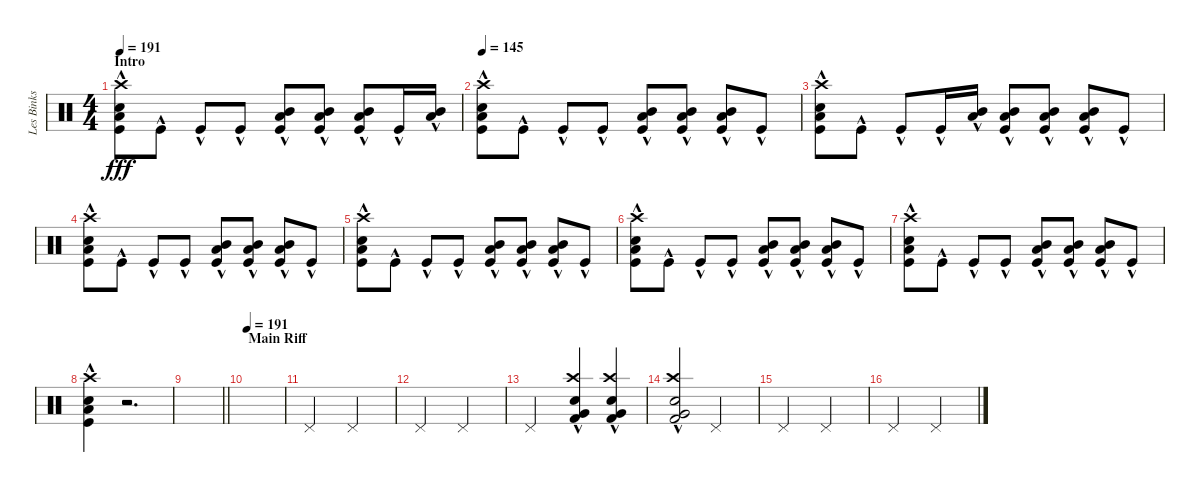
\track ("Les Binks" "Les Binks") {instrument percussion}
\staff {score}
\articulation defaults
\ts (4 4)
\section ("" "Intro")
\tempo 191
\tempo 171
\tempo 191
\clef neutral
\ks c
("Snare (hit) 2"{hac} "Low Tom (hit)"{hac} "Kick (hit)"{hac} "Crash high (hit)"{hac}).8{dy fff} "Kick (hit)"{hac}.8 "Kick (hit)"{hac}.8 "Kick (hit)"{hac}.8 ("Mid Tom (hit)"{hac} "Low Tom (hit)"{hac} "Kick (hit)"{hac}).8 ("Mid Tom (hit)"{hac} "Low Tom (hit)"{hac} "Kick (hit)"{hac}).8 ("Mid Tom (hit)"{hac} "Low Tom (hit)"{hac} "Kick (hit)"{hac}).8 "Kick (hit)"{hac}.16 ("Mid Tom (hit)"{hac} "Low Tom (hit)"{hac}).16 |
\tempo 145
("Snare (hit) 2"{hac} "Low Tom (hit)"{hac} "Kick (hit)"{hac} "Crash high (hit)"{hac}).8 "Kick (hit)"{hac}.8 "Kick (hit)"{hac}.8 "Kick (hit)"{hac}.8 ("Mid Tom (hit)"{hac} "Low Tom (hit)"{hac} "Kick (hit)"{hac}).8 ("Mid Tom (hit)"{hac} "Low Tom (hit)"{hac} "Kick (hit)"{hac}).8 ("Mid Tom (hit)"{hac} "Low Tom (hit)"{hac} "Kick (hit)"{hac}).8 "Kick (hit)"{hac}.8 |
("Snare (hit) 2"{hac} "Low Tom (hit)"{hac} "Kick (hit)"{hac} "Crash high (hit)"{hac}).8 "Kick (hit)"{hac}.8 "Kick (hit)"{hac}.8 "Kick (hit)"{hac}.16 ("Mid Tom (hit)"{hac} "Low Tom (hit)"{hac}).16 ("Mid Tom (hit)"{hac} "Low Tom (hit)"{hac} "Kick (hit)"{hac}).8 ("Mid Tom (hit)"{hac} "Low Tom (hit)"{hac} "Kick (hit)"{hac}).8 ("Mid Tom (hit)"{hac} "Low Tom (hit)"{hac} "Kick (hit)"{hac}).8 "Kick (hit)"{hac}.8 |
("Snare (hit) 2"{hac} "Low Tom (hit)"{hac} "Kick (hit)"{hac} "Crash high (hit)"{hac}).8 "Kick (hit)"{hac}.8 "Kick (hit)"{hac}.8 "Kick (hit)"{hac}.8 ("Mid Tom (hit)"{hac} "Low Tom (hit)"{hac} "Kick (hit)"{hac}).8 ("Mid Tom (hit)"{hac} "Low Tom (hit)"{hac} "Kick (hit)"{hac}).8 ("Mid Tom (hit)"{hac} "Low Tom (hit)"{hac} "Kick (hit)"{hac}).8 "Kick (hit)"{hac}.8 |
("Snare (hit) 2"{hac} "Low Tom (hit)"{hac} "Kick (hit)"{hac} "Crash high (hit)"{hac}).8 "Kick (hit)"{hac}.8 "Kick (hit)"{hac}.8 "Kick (hit)"{hac}.8 ("Mid Tom (hit)"{hac} "Low Tom (hit)"{hac} "Kick (hit)"{hac}).8 ("Mid Tom (hit)"{hac} "Low Tom (hit)"{hac} "Kick (hit)"{hac}).8 ("Mid Tom (hit)"{hac} "Low Tom (hit)"{hac} "Kick (hit)"{hac}).8 "Kick (hit)"{hac}.8 |
("Snare (hit) 2"{hac} "Low Tom (hit)"{hac} "Kick (hit)"{hac} "Crash high (hit)"{hac}).8 "Kick (hit)"{hac}.8 "Kick (hit)"{hac}.8 "Kick (hit)"{hac}.8 ("Mid Tom (hit)"{hac} "Low Tom (hit)"{hac} "Kick (hit)"{hac}).8 ("Mid Tom (hit)"{hac} "Low Tom (hit)"{hac} "Kick (hit)"{hac}).8 ("Mid Tom (hit)"{hac} "Low Tom (hit)"{hac} "Kick (hit)"{hac}).8 "Kick (hit)"{hac}.8 |
("Snare (hit) 2"{hac} "Low Tom (hit)"{hac} "Kick (hit)"{hac} "Crash high (hit)"{hac}).8 "Kick (hit)"{hac}.8 "Kick (hit)"{hac}.8 "Kick (hit)"{hac}.8 ("Mid Tom (hit)"{hac} "Low Tom (hit)"{hac} "Kick (hit)"{hac}).8 ("Mid Tom (hit)"{hac} "Low Tom (hit)"{hac} "Kick (hit)"{hac}).8 ("Mid Tom (hit)"{hac} "Low Tom (hit)"{hac} "Kick (hit)"{hac}).8 "Kick (hit)"{hac}.8 |
("Snare (hit) 2"{hac} "Low Tom (hit)"{hac} "Kick (hit)"{hac} "Crash high (hit)"{hac}).4 r.2{d} |
\barLineRight lightlight
|
\section ("" "Main Riff")
\tempo 191
|
"Pedal Hi-Hat (hit)".2 "Pedal Hi-Hat (hit)".2 |
"Pedal Hi-Hat (hit)".2 "Pedal Hi-Hat (hit)".2 |
"Pedal Hi-Hat (hit)".2 ("Crash high (hit)" "Snare (hit) 2" "Very Low Tom (hit)" "Kick (hit) 2"{hac}).4 ("Crash high (hit)" "Snare (hit) 2" "Very Low Tom (hit)" "Kick (hit) 2"{hac}).4 |
("Crash high (hit)" "Snare (hit) 2" "Very Low Tom (hit)" "Kick (hit) 2"{hac}).2 "Pedal Hi-Hat (hit)".2 |
"Pedal Hi-Hat (hit)".2 "Pedal Hi-Hat (hit)".2 |
"Pedal Hi-Hat (hit)".2 "Pedal Hi-Hat (hit)".2
